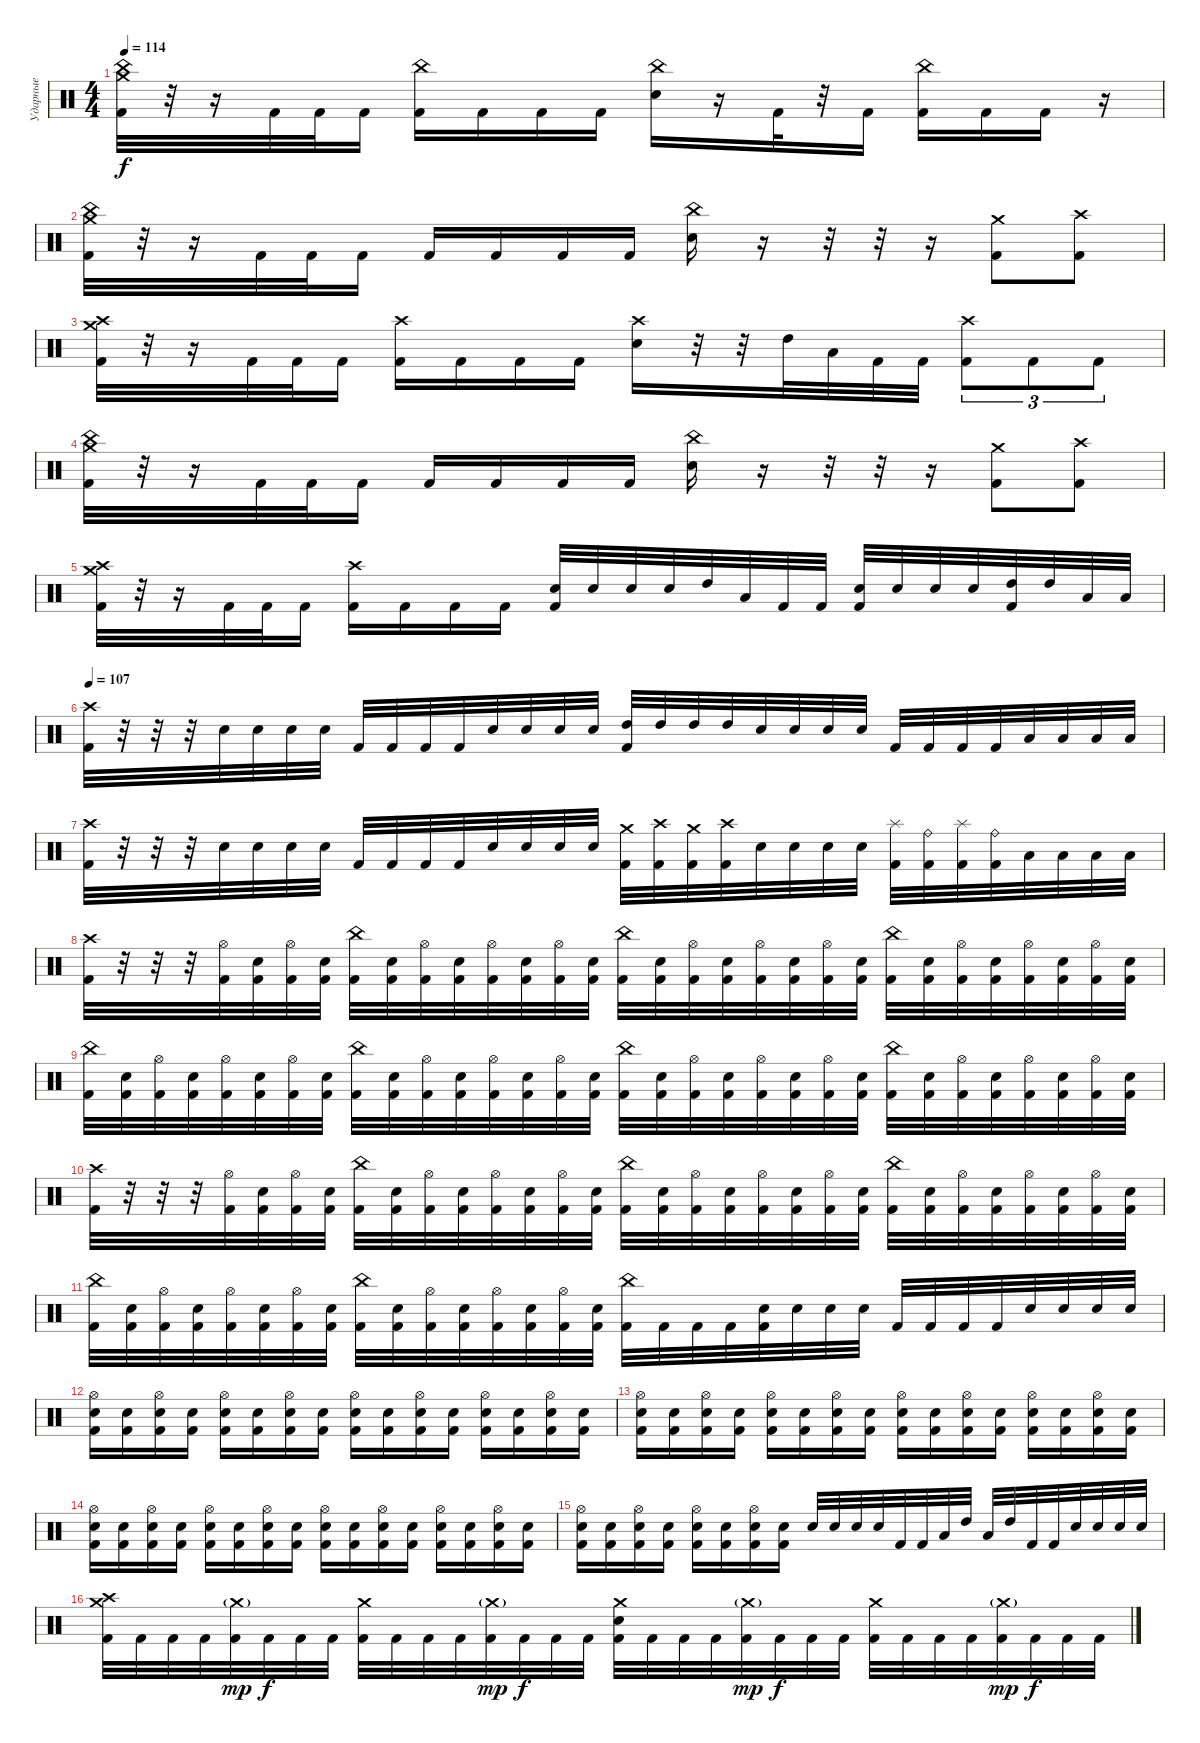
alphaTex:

\track ("Ударные" "Ударные") {instrument percussion}
\staff {score}
\articulation defaults
\ts (4 4)
\tempo 114
\clef neutral
\ks c
("China (hit)" "Crash medium (hit)" "Kick (hit) 2").32{dy f} r.32 r.16 "Kick (hit) 2".32 "Kick (hit) 2".32 "Kick (hit) 2".16 ("China (hit)" "Kick (hit) 2").16 "Kick (hit) 2".16 "Kick (hit) 2".16 "Kick (hit) 2".16 ("China (hit)" "Electric Snare (hit)").16 r.16 "Kick (hit) 2".32 r.32 "Kick (hit) 2".16 ("China (hit)" "Kick (hit) 2").16 "Kick (hit) 2".16 "Kick (hit) 2".16 r.16 |
("China (hit)" "Crash medium (hit)" "Kick (hit) 2").32 r.32 r.16 "Kick (hit) 2".32 "Kick (hit) 2".32 "Kick (hit) 2".16 "Kick (hit) 2".16 "Kick (hit) 2".16 "Kick (hit) 2".16 "Kick (hit) 2".16 ("China (hit)" "Electric Snare (hit)").16 r.16 r.32 r.32 r.16 ("Crash medium (hit)" "Kick (hit) 2").8 ("Crash high (hit)" "Kick (hit) 2").8 |
("Crash high (hit)" "Crash medium (hit)" "Kick (hit) 2").32 r.32 r.16 "Kick (hit) 2".32 "Kick (hit) 2".32 "Kick (hit) 2".16 ("Crash high (hit)" "Kick (hit) 2").16 "Kick (hit) 2".16 "Kick (hit) 2".16 "Kick (hit) 2".16 ("Crash high (hit)" "Electric Snare (hit)").16 r.32 r.32 "High Tom (hit)".32 "Low Tom (hit)".32 "Kick (hit) 2".32 "Kick (hit) 2".32 ("Crash high (hit)" "Kick (hit) 2").8{tu (3 2)} "Kick (hit) 2".8{tu (3 2)} "Kick (hit) 2".8{tu (3 2)} |
("China (hit)" "Crash medium (hit)" "Kick (hit) 2").32 r.32 r.16 "Kick (hit) 2".32 "Kick (hit) 2".32 "Kick (hit) 2".16 "Kick (hit) 2".16 "Kick (hit) 2".16 "Kick (hit) 2".16 "Kick (hit) 2".16 ("China (hit)" "Electric Snare (hit)").16 r.16 r.32 r.32 r.16 ("Crash medium (hit)" "Kick (hit) 2").8 ("Crash high (hit)" "Kick (hit) 2").8 |
("Crash high (hit)" "Crash medium (hit)" "Kick (hit) 2").32 r.32 r.16 "Kick (hit) 2".32 "Kick (hit) 2".32 "Kick (hit) 2".16 ("Crash high (hit)" "Kick (hit) 2").16 "Kick (hit) 2".16 "Kick (hit) 2".16 "Kick (hit) 2".16 ("Electric Snare (hit)" "Kick (hit) 2").32 "Electric Snare (hit)".32 "Electric Snare (hit)".32 "Electric Snare (hit)".32 "High Tom (hit)".32 "Low Tom (hit)".32 "Kick (hit) 2".32 "Kick (hit) 2".32 ("Electric Snare (hit)" "Kick (hit) 2").32 "Electric Snare (hit)".32 "Electric Snare (hit)".32 "Electric Snare (hit)".32 ("Kick (hit) 2" "High Tom (hit)").32 "High Tom (hit)".32 "Low Tom (hit)".32 "Low Tom (hit)".32 |
\tempo 107
("Crash high (hit)" "Kick (hit) 2").32 r.32 r.32 r.32 "Electric Snare (hit)".32 "Electric Snare (hit)".32 "Electric Snare (hit)".32 "Electric Snare (hit)".32 "Kick (hit) 2".32 "Kick (hit) 2".32 "Kick (hit) 2".32 "Kick (hit) 2".32 "Electric Snare (hit)".32 "Electric Snare (hit)".32 "Electric Snare (hit)".32 "Electric Snare (hit)".32 ("High Tom (hit)" "Kick (hit) 2").32 "High Tom (hit)".32 "High Tom (hit)".32 "High Tom (hit)".32 "Electric Snare (hit)".32 "Electric Snare (hit)".32 "Electric Snare (hit)".32 "Electric Snare (hit)".32 "Kick (hit) 2".32 "Kick (hit) 2".32 "Kick (hit) 2".32 "Kick (hit) 2".32 "Low Tom (hit)".32 "Low Tom (hit)".32 "Low Tom (hit)".32 "Low Tom (hit)".32 |
("Crash high (hit)" "Kick (hit) 2").32 r.32 r.32 r.32 "Electric Snare (hit)".32 "Electric Snare (hit)".32 "Electric Snare (hit)".32 "Electric Snare (hit)".32 "Kick (hit) 2".32 "Kick (hit) 2".32 "Kick (hit) 2".32 "Kick (hit) 2".32 "Electric Snare (hit)".32 "Electric Snare (hit)".32 "Electric Snare (hit)".32 "Electric Snare (hit)".32 ("Crash medium (hit)" "Kick (hit) 2").32 ("Crash high (hit)" "Kick (hit) 2").32 ("Crash medium (hit)" "Kick (hit) 2").32 ("Crash high (hit)" "Kick (hit) 2").32 "Electric Snare (hit)".32 "Electric Snare (hit)".32 "Electric Snare (hit)".32 "Electric Snare (hit)".32 ("Splash (hit)" "Kick (hit) 2").32 ("Ride (bell)" "Kick (hit) 2").32 ("Splash (hit)" "Kick (hit) 2").32 ("Ride (bell)" "Kick (hit) 2").32 "Low Tom (hit)".32 "Low Tom (hit)".32 "Low Tom (hit)".32 "Low Tom (hit)".32 |
("Crash high (hit)" "Kick (hit) 2").32 r.32 r.32 r.32 ("Hi-Hat (open)" "Kick (hit) 2").32 ("Electric Snare (hit)" "Kick (hit) 2").32 ("Hi-Hat (open)" "Kick (hit) 2").32 ("Electric Snare (hit)" "Kick (hit) 2").32 ("China (hit)" "Kick (hit) 2").32 ("Electric Snare (hit)" "Kick (hit) 2").32 ("Hi-Hat (open)" "Kick (hit) 2").32 ("Electric Snare (hit)" "Kick (hit) 2").32 ("Hi-Hat (open)" "Kick (hit) 2").32 ("Electric Snare (hit)" "Kick (hit) 2").32 ("Hi-Hat (open)" "Kick (hit) 2").32 ("Electric Snare (hit)" "Kick (hit) 2").32 ("China (hit)" "Kick (hit) 2").32 ("Electric Snare (hit)" "Kick (hit) 2").32 ("Hi-Hat (open)" "Kick (hit) 2").32 ("Electric Snare (hit)" "Kick (hit) 2").32 ("Hi-Hat (open)" "Kick (hit) 2").32 ("Electric Snare (hit)" "Kick (hit) 2").32 ("Hi-Hat (open)" "Kick (hit) 2").32 ("Electric Snare (hit)" "Kick (hit) 2").32 ("China (hit)" "Kick (hit) 2").32 ("Electric Snare (hit)" "Kick (hit) 2").32 ("Hi-Hat (open)" "Kick (hit) 2").32 ("Electric Snare (hit)" "Kick (hit) 2").32 ("Hi-Hat (open)" "Kick (hit) 2").32 ("Electric Snare (hit)" "Kick (hit) 2").32 ("Hi-Hat (open)" "Kick (hit) 2").32 ("Electric Snare (hit)" "Kick (hit) 2").32 |
("China (hit)" "Kick (hit) 2").32 ("Electric Snare (hit)" "Kick (hit) 2").32 ("Hi-Hat (open)" "Kick (hit) 2").32 ("Electric Snare (hit)" "Kick (hit) 2").32 ("Hi-Hat (open)" "Kick (hit) 2").32 ("Electric Snare (hit)" "Kick (hit) 2").32 ("Hi-Hat (open)" "Kick (hit) 2").32 ("Electric Snare (hit)" "Kick (hit) 2").32 ("China (hit)" "Kick (hit) 2").32 ("Electric Snare (hit)" "Kick (hit) 2").32 ("Hi-Hat (open)" "Kick (hit) 2").32 ("Electric Snare (hit)" "Kick (hit) 2").32 ("Hi-Hat (open)" "Kick (hit) 2").32 ("Electric Snare (hit)" "Kick (hit) 2").32 ("Hi-Hat (open)" "Kick (hit) 2").32 ("Electric Snare (hit)" "Kick (hit) 2").32 ("China (hit)" "Kick (hit) 2").32 ("Electric Snare (hit)" "Kick (hit) 2").32 ("Hi-Hat (open)" "Kick (hit) 2").32 ("Electric Snare (hit)" "Kick (hit) 2").32 ("Hi-Hat (open)" "Kick (hit) 2").32 ("Electric Snare (hit)" "Kick (hit) 2").32 ("Hi-Hat (open)" "Kick (hit) 2").32 ("Electric Snare (hit)" "Kick (hit) 2").32 ("China (hit)" "Kick (hit) 2").32 ("Electric Snare (hit)" "Kick (hit) 2").32 ("Hi-Hat (open)" "Kick (hit) 2").32 ("Electric Snare (hit)" "Kick (hit) 2").32 ("Hi-Hat (open)" "Kick (hit) 2").32 ("Electric Snare (hit)" "Kick (hit) 2").32 ("Hi-Hat (open)" "Kick (hit) 2").32 ("Electric Snare (hit)" "Kick (hit) 2").32 |
("Crash high (hit)" "Kick (hit) 2").32 r.32 r.32 r.32 ("Hi-Hat (open)" "Kick (hit) 2").32 ("Electric Snare (hit)" "Kick (hit) 2").32 ("Hi-Hat (open)" "Kick (hit) 2").32 ("Electric Snare (hit)" "Kick (hit) 2").32 ("China (hit)" "Kick (hit) 2").32 ("Electric Snare (hit)" "Kick (hit) 2").32 ("Hi-Hat (open)" "Kick (hit) 2").32 ("Electric Snare (hit)" "Kick (hit) 2").32 ("Hi-Hat (open)" "Kick (hit) 2").32 ("Electric Snare (hit)" "Kick (hit) 2").32 ("Hi-Hat (open)" "Kick (hit) 2").32 ("Electric Snare (hit)" "Kick (hit) 2").32 ("China (hit)" "Kick (hit) 2").32 ("Electric Snare (hit)" "Kick (hit) 2").32 ("Hi-Hat (open)" "Kick (hit) 2").32 ("Electric Snare (hit)" "Kick (hit) 2").32 ("Hi-Hat (open)" "Kick (hit) 2").32 ("Electric Snare (hit)" "Kick (hit) 2").32 ("Hi-Hat (open)" "Kick (hit) 2").32 ("Electric Snare (hit)" "Kick (hit) 2").32 ("China (hit)" "Kick (hit) 2").32 ("Electric Snare (hit)" "Kick (hit) 2").32 ("Hi-Hat (open)" "Kick (hit) 2").32 ("Electric Snare (hit)" "Kick (hit) 2").32 ("Hi-Hat (open)" "Kick (hit) 2").32 ("Electric Snare (hit)" "Kick (hit) 2").32 ("Hi-Hat (open)" "Kick (hit) 2").32 ("Electric Snare (hit)" "Kick (hit) 2").32 |
("China (hit)" "Kick (hit) 2").32 ("Electric Snare (hit)" "Kick (hit) 2").32 ("Hi-Hat (open)" "Kick (hit) 2").32 ("Electric Snare (hit)" "Kick (hit) 2").32 ("Hi-Hat (open)" "Kick (hit) 2").32 ("Electric Snare (hit)" "Kick (hit) 2").32 ("Hi-Hat (open)" "Kick (hit) 2").32 ("Electric Snare (hit)" "Kick (hit) 2").32 ("China (hit)" "Kick (hit) 2").32 ("Electric Snare (hit)" "Kick (hit) 2").32 ("Hi-Hat (open)" "Kick (hit) 2").32 ("Electric Snare (hit)" "Kick (hit) 2").32 ("Hi-Hat (open)" "Kick (hit) 2").32 ("Electric Snare (hit)" "Kick (hit) 2").32 ("Hi-Hat (open)" "Kick (hit) 2").32 ("Electric Snare (hit)" "Kick (hit) 2").32 ("China (hit)" "Kick (hit) 2").32 "Kick (hit) 2".32 "Kick (hit) 2".32 "Kick (hit) 2".32 ("Electric Snare (hit)" "Kick (hit) 2").32 "Electric Snare (hit)".32 "Electric Snare (hit)".32 "Electric Snare (hit)".32 "Kick (hit) 2".32 "Kick (hit) 2".32 "Kick (hit) 2".32 "Kick (hit) 2".32 "Electric Snare (hit)".32 "Electric Snare (hit)".32 "Electric Snare (hit)".32 "Electric Snare (hit)".32 |
("Hi-Hat (open)" "Electric Snare (hit)" "Kick (hit) 2").16 ("Electric Snare (hit)" "Kick (hit) 2").16 ("Hi-Hat (open)" "Electric Snare (hit)" "Kick (hit) 2").16 ("Electric Snare (hit)" "Kick (hit) 2").16 ("Hi-Hat (open)" "Electric Snare (hit)" "Kick (hit) 2").16 ("Electric Snare (hit)" "Kick (hit) 2").16 ("Hi-Hat (open)" "Electric Snare (hit)" "Kick (hit) 2").16 ("Electric Snare (hit)" "Kick (hit) 2").16 ("Hi-Hat (open)" "Electric Snare (hit)" "Kick (hit) 2").16 ("Electric Snare (hit)" "Kick (hit) 2").16 ("Hi-Hat (open)" "Electric Snare (hit)" "Kick (hit) 2").16 ("Electric Snare (hit)" "Kick (hit) 2").16 ("Hi-Hat (open)" "Electric Snare (hit)" "Kick (hit) 2").16 ("Electric Snare (hit)" "Kick (hit) 2").16 ("Hi-Hat (open)" "Electric Snare (hit)" "Kick (hit) 2").16 ("Electric Snare (hit)" "Kick (hit) 2").16 |
("Hi-Hat (open)" "Electric Snare (hit)" "Kick (hit) 2").16 ("Electric Snare (hit)" "Kick (hit) 2").16 ("Hi-Hat (open)" "Electric Snare (hit)" "Kick (hit) 2").16 ("Electric Snare (hit)" "Kick (hit) 2").16 ("Hi-Hat (open)" "Electric Snare (hit)" "Kick (hit) 2").16 ("Electric Snare (hit)" "Kick (hit) 2").16 ("Hi-Hat (open)" "Electric Snare (hit)" "Kick (hit) 2").16 ("Electric Snare (hit)" "Kick (hit) 2").16 ("Hi-Hat (open)" "Electric Snare (hit)" "Kick (hit) 2").16 ("Electric Snare (hit)" "Kick (hit) 2").16 ("Hi-Hat (open)" "Electric Snare (hit)" "Kick (hit) 2").16 ("Electric Snare (hit)" "Kick (hit) 2").16 ("Hi-Hat (open)" "Electric Snare (hit)" "Kick (hit) 2").16 ("Electric Snare (hit)" "Kick (hit) 2").16 ("Hi-Hat (open)" "Electric Snare (hit)" "Kick (hit) 2").16 ("Electric Snare (hit)" "Kick (hit) 2").16 |
("Hi-Hat (open)" "Electric Snare (hit)" "Kick (hit) 2").16 ("Electric Snare (hit)" "Kick (hit) 2").16 ("Hi-Hat (open)" "Electric Snare (hit)" "Kick (hit) 2").16 ("Electric Snare (hit)" "Kick (hit) 2").16 ("Hi-Hat (open)" "Electric Snare (hit)" "Kick (hit) 2").16 ("Electric Snare (hit)" "Kick (hit) 2").16 ("Hi-Hat (open)" "Electric Snare (hit)" "Kick (hit) 2").16 ("Electric Snare (hit)" "Kick (hit) 2").16 ("Hi-Hat (open)" "Electric Snare (hit)" "Kick (hit) 2").16 ("Electric Snare (hit)" "Kick (hit) 2").16 ("Hi-Hat (open)" "Electric Snare (hit)" "Kick (hit) 2").16 ("Electric Snare (hit)" "Kick (hit) 2").16 ("Hi-Hat (open)" "Electric Snare (hit)" "Kick (hit) 2").16 ("Electric Snare (hit)" "Kick (hit) 2").16 ("Hi-Hat (open)" "Electric Snare (hit)" "Kick (hit) 2").16 ("Electric Snare (hit)" "Kick (hit) 2").16 |
("Hi-Hat (open)" "Electric Snare (hit)" "Kick (hit) 2").16 ("Electric Snare (hit)" "Kick (hit) 2").16 ("Hi-Hat (open)" "Electric Snare (hit)" "Kick (hit) 2").16 ("Electric Snare (hit)" "Kick (hit) 2").16 ("Hi-Hat (open)" "Electric Snare (hit)" "Kick (hit) 2").16 ("Electric Snare (hit)" "Kick (hit) 2").16 ("Hi-Hat (open)" "Electric Snare (hit)" "Kick (hit) 2").16 ("Electric Snare (hit)" "Kick (hit) 2").16 "Electric Snare (hit)".32 "Electric Snare (hit)".32 "Electric Snare (hit)".32 "Electric Snare (hit)".32 "Kick (hit) 2".32 "Kick (hit) 2".32 "Low Tom (hit)".32 "High Tom (hit)".32 "Low Tom (hit)".32 "High Tom (hit)".32 "Kick (hit) 2".32 "Kick (hit) 2".32 "Electric Snare (hit)".32 "Electric Snare (hit)".32 "Electric Snare (hit)".32 "Electric Snare (hit)".32 |
("Crash medium (hit)" "Crash high (hit)" "Kick (hit) 2").32 "Kick (hit) 2".32 "Kick (hit) 2".32 "Kick (hit) 2".32 ("Crash medium (hit)"{g} "Kick (hit) 2").32{dy mp} "Kick (hit) 2".32{dy f} "Kick (hit) 2".32 "Kick (hit) 2".32 ("Crash medium (hit)" "Kick (hit) 2").32 "Kick (hit) 2".32 "Kick (hit) 2".32 "Kick (hit) 2".32 ("Crash medium (hit)"{g} "Kick (hit) 2").32{dy mp} "Kick (hit) 2".32{dy f} "Kick (hit) 2".32 "Kick (hit) 2".32 ("Crash medium (hit)" "Electric Snare (hit)" "Kick (hit) 2").32 "Kick (hit) 2".32 "Kick (hit) 2".32 "Kick (hit) 2".32 ("Crash medium (hit)"{g} "Kick (hit) 2").32{dy mp} "Kick (hit) 2".32{dy f} "Kick (hit) 2".32 "Kick (hit) 2".32 ("Crash medium (hit)" "Kick (hit) 2").32 "Kick (hit) 2".32 "Kick (hit) 2".32 "Kick (hit) 2".32 ("Crash medium (hit)"{g} "Kick (hit) 2").32{dy mp} "Kick (hit) 2".32{dy f} "Kick (hit) 2".32 "Kick (hit) 2".32
